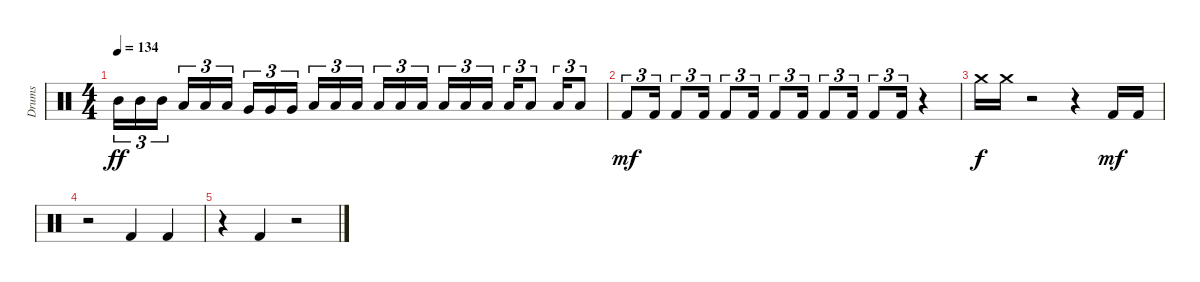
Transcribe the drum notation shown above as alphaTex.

\track ("Drums" "Drums") {instrument percussion}
\staff {score}
\articulation defaults
\ts (4 4)
\tempo 134
\clef neutral
\ks c "Mid Tom (hit)".16{tu (3 2) dy ff} "Mid Tom (hit)".16{tu (3 2)} "Mid Tom (hit)".16{tu (3 2) beam splitsecondary} "Low Tom (hit)".16{tu (3 2)} "Low Tom (hit)".16{tu (3 2)} "Low Tom (hit)".16{tu (3 2)} "Very Low Tom (hit)".16{tu (3 2)} "Very Low Tom (hit)".16{tu (3 2)} "Very Low Tom (hit)".16{tu (3 2) beam splitsecondary} "Low Floor Tom (hit)".16{tu (3 2)} "Low Floor Tom (hit)".16{tu (3 2)} "Low Floor Tom (hit)".16{tu (3 2)} "Low Floor Tom (hit)".16{tu (3 2)} "Low Floor Tom (hit)".16{tu (3 2)} "Low Floor Tom (hit)".16{tu (3 2) beam splitsecondary} "Low Floor Tom (hit)".16{tu (3 2)} "Low Floor Tom (hit)".16{tu (3 2)} "Low Floor Tom (hit)".16{tu (3 2)} "Low Floor Tom (hit)".16{tu (3 2)} "Low Floor Tom (hit)".8{tu (3 2)} "Low Floor Tom (hit)".16{tu (3 2)} "Low Floor Tom (hit)".8{tu (3 2)}
|
"Kick (hit) 2".8{tu (3 2) dy mf} "Kick (hit) 2".16{tu (3 2)} "Kick (hit) 2".8{tu (3 2)} "Kick (hit) 2".16{tu (3 2)} "Kick (hit) 2".8{tu (3 2)} "Kick (hit) 2".16{tu (3 2)} "Kick (hit) 2".8{tu (3 2)} "Kick (hit) 2".16{tu (3 2)} "Kick (hit) 2".8{tu (3 2)} "Kick (hit) 2".16{tu (3 2)} "Kick (hit) 2".8{tu (3 2)} "Kick (hit) 2".16{tu (3 2)} r.4 |
"Crash medium (hit)".16{dy f} "Crash medium (hit)".16 r.2 r.4 "Kick (hit) 2".16{dy mf} "Kick (hit) 2".16 |
r.2 "Kick (hit) 2".4 "Kick (hit) 2".4 |
r.4 "Kick (hit) 2".4 r.2
